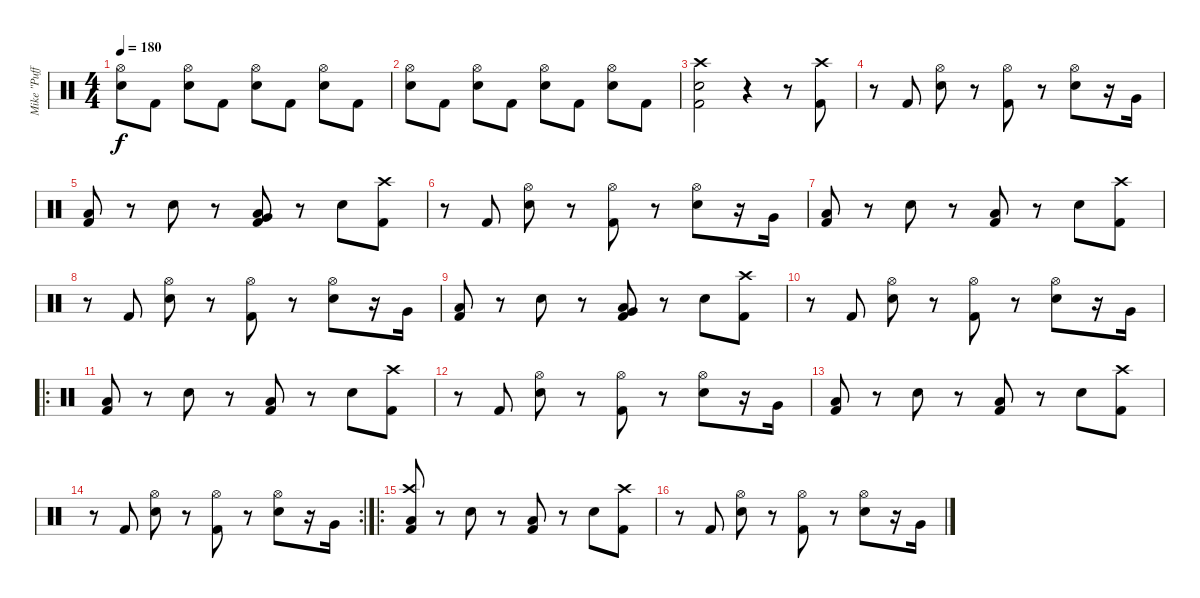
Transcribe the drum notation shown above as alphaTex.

\track ("Mike \"Puffy\" Bordin" "Mike \"Puff") {instrument percussion}
\staff {score}
\articulation defaults
\ts (4 4)
\tempo 180
\clef neutral
\ks c
("Hi-Hat (open)" "Electric Snare (hit)").8{dy f} "Kick (hit) 2".8 ("Hi-Hat (open)" "Electric Snare (hit)").8 "Kick (hit) 2".8 ("Hi-Hat (open)" "Electric Snare (hit)").8 "Kick (hit) 2".8 ("Hi-Hat (open)" "Electric Snare (hit)").8 "Kick (hit) 2".8 |
("Hi-Hat (open)" "Electric Snare (hit)").8 "Kick (hit) 2".8 ("Hi-Hat (open)" "Electric Snare (hit)").8 "Kick (hit) 2".8 ("Hi-Hat (open)" "Electric Snare (hit)").8 "Kick (hit) 2".8 ("Hi-Hat (open)" "Electric Snare (hit)").8 "Kick (hit) 2".8 |
("Crash high (hit)" "Electric Snare (hit)" "Kick (hit) 2").2 r.4 r.8 ("Crash high (hit)" "Kick (hit) 2").8 |
r.8 "Kick (hit) 2".8 ("Hi-Hat (open)" "Electric Snare (hit)").8 r.8 ("Hi-Hat (open)" "Kick (hit) 2").8 r.8 ("Hi-Hat (open)" "Electric Snare (hit)").8 r.16 "Very Low Tom (hit)".16 |
("Low Floor Tom (hit)" "Kick (hit) 2").8 r.8 "Electric Snare (hit)".8 r.8 ("Low Floor Tom (hit)" "Very Low Tom (hit)" "Kick (hit) 2").8 r.8 "Electric Snare (hit)".8 ("Crash high (hit)" "Kick (hit) 2").8 |
r.8 "Kick (hit) 2".8 ("Hi-Hat (open)" "Electric Snare (hit)").8 r.8 ("Hi-Hat (open)" "Kick (hit) 2").8 r.8 ("Hi-Hat (open)" "Electric Snare (hit)").8 r.16 "Very Low Tom (hit)".16 |
("Low Floor Tom (hit)" "Kick (hit) 2").8 r.8 "Electric Snare (hit)".8 r.8 ("Low Floor Tom (hit)" "Kick (hit) 2").8 r.8 "Electric Snare (hit)".8 ("Crash high (hit)" "Kick (hit) 2").8 |
r.8 "Kick (hit) 2".8 ("Hi-Hat (open)" "Electric Snare (hit)").8 r.8 ("Hi-Hat (open)" "Kick (hit) 2").8 r.8 ("Hi-Hat (open)" "Electric Snare (hit)").8 r.16 "Very Low Tom (hit)".16 |
("Low Floor Tom (hit)" "Kick (hit) 2").8 r.8 "Electric Snare (hit)".8 r.8 ("Low Floor Tom (hit)" "Very Low Tom (hit)" "Kick (hit) 2").8 r.8 "Electric Snare (hit)".8 ("Crash high (hit)" "Kick (hit) 2").8 |
r.8 "Kick (hit) 2".8 ("Hi-Hat (open)" "Electric Snare (hit)").8 r.8 ("Hi-Hat (open)" "Kick (hit) 2").8 r.8 ("Hi-Hat (open)" "Electric Snare (hit)").8 r.16 "Very Low Tom (hit)".16 |
\ro
("Low Floor Tom (hit)" "Kick (hit) 2").8 r.8 "Electric Snare (hit)".8 r.8 ("Low Floor Tom (hit)" "Kick (hit) 2").8 r.8 "Electric Snare (hit)".8 ("Crash high (hit)" "Kick (hit) 2").8 |
r.8 "Kick (hit) 2".8 ("Hi-Hat (open)" "Electric Snare (hit)").8 r.8 ("Hi-Hat (open)" "Kick (hit) 2").8 r.8 ("Hi-Hat (open)" "Electric Snare (hit)").8 r.16 "Very Low Tom (hit)".16 |
("Low Floor Tom (hit)" "Kick (hit) 2").8 r.8 "Electric Snare (hit)".8 r.8 ("Low Floor Tom (hit)" "Kick (hit) 2").8 r.8 "Electric Snare (hit)".8 ("Crash high (hit)" "Kick (hit) 2").8 |
\rc 2
r.8 "Kick (hit) 2".8 ("Hi-Hat (open)" "Electric Snare (hit)").8 r.8 ("Hi-Hat (open)" "Kick (hit) 2").8 r.8 ("Hi-Hat (open)" "Electric Snare (hit)").8 r.16 "Very Low Tom (hit)".16 |
\ro
("Crash high (hit)" "Low Floor Tom (hit)" "Kick (hit) 2").8 r.8 "Electric Snare (hit)".8 r.8 ("Low Floor Tom (hit)" "Kick (hit) 2").8 r.8 "Electric Snare (hit)".8 ("Crash high (hit)" "Kick (hit) 2").8 |
r.8 "Kick (hit) 2".8 ("Hi-Hat (open)" "Electric Snare (hit)").8 r.8 ("Hi-Hat (open)" "Kick (hit) 2").8 r.8 ("Hi-Hat (open)" "Electric Snare (hit)").8 r.16 "Very Low Tom (hit)".16
